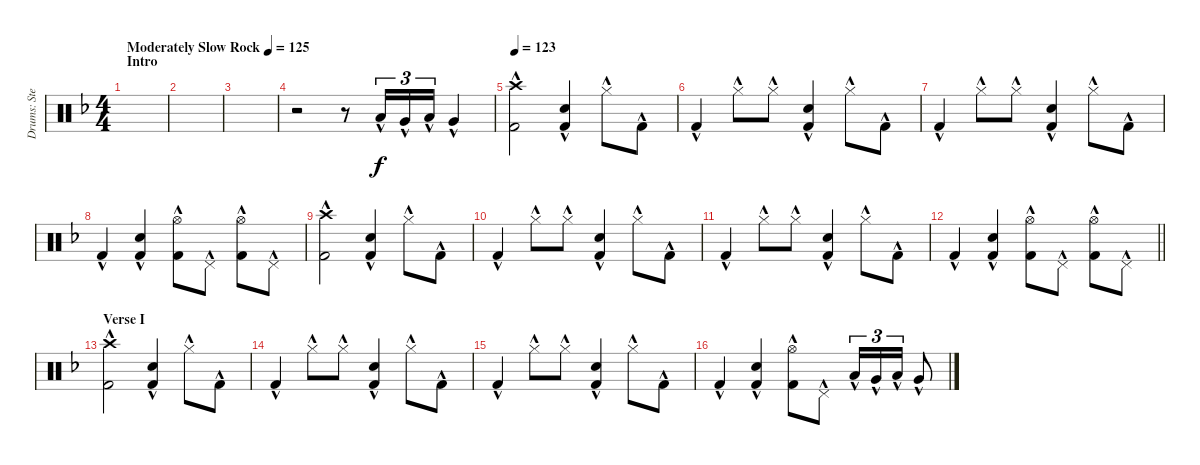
\track ("Drums: Steve" "Drums: Ste") {instrument percussion}
\staff {score}
\articulation defaults
\ts (4 4)
\section ("" "Intro")
\tempo (125 "Moderately Slow Rock")
\tempo 119
\tempo (125 "Moderately Slow Rock")
\clef neutral
\ks f
|
|
|
r.2 r.8 "Low Tom (hit)"{hac}.16{tu (3 2)} "Very Low Tom (hit)"{hac}.16{tu (3 2)} "Low Tom (hit)"{hac}.16{tu (3 2)} "Very Low Tom (hit)"{hac}.4 |
\tempo 123
("Crash high (hit)"{hac} "Kick (hit) 2"{hac}).2 ("Electric Snare (hit)"{hac} "Kick (hit) 2"{hac}).4 "Hi-Hat (closed)"{hac}.8 "Kick (hit) 2"{hac}.8 |
"Kick (hit) 2"{hac}.4 "Hi-Hat (closed)"{hac}.8 "Hi-Hat (closed)"{hac}.8 ("Electric Snare (hit)"{hac} "Kick (hit) 2"{hac}).4 "Hi-Hat (closed)"{hac}.8 "Kick (hit) 2"{hac}.8 |
"Kick (hit) 2"{hac}.4 "Hi-Hat (closed)"{hac}.8 "Hi-Hat (closed)"{hac}.8 ("Electric Snare (hit)"{hac} "Kick (hit) 2"{hac}).4 "Hi-Hat (closed)"{hac}.8 "Kick (hit) 2"{hac}.8 |
"Kick (hit) 2"{hac}.4 ("Electric Snare (hit)"{hac} "Kick (hit) 2"{hac}).4 ("Hi-Hat (open)"{hac} "Kick (hit) 2"{hac}).8 "Pedal Hi-Hat (hit)"{hac}.8 ("Hi-Hat (open)"{hac} "Kick (hit) 2"{hac}).8 "Pedal Hi-Hat (hit)"{hac}.8 |
("Crash high (hit)"{hac} "Kick (hit) 2"{hac}).2 ("Electric Snare (hit)"{hac} "Kick (hit) 2"{hac}).4 "Hi-Hat (closed)"{hac}.8 "Kick (hit) 2"{hac}.8 |
"Kick (hit) 2"{hac}.4 "Hi-Hat (closed)"{hac}.8 "Hi-Hat (closed)"{hac}.8 ("Electric Snare (hit)"{hac} "Kick (hit) 2"{hac}).4 "Hi-Hat (closed)"{hac}.8 "Kick (hit) 2"{hac}.8 |
"Kick (hit) 2"{hac}.4 "Hi-Hat (closed)"{hac}.8 "Hi-Hat (closed)"{hac}.8 ("Electric Snare (hit)"{hac} "Kick (hit) 2"{hac}).4 "Hi-Hat (closed)"{hac}.8 "Kick (hit) 2"{hac}.8 |
\barLineRight lightlight "Kick (hit) 2"{hac}.4
("Electric Snare (hit)"{hac} "Kick (hit) 2"{hac}).4 ("Hi-Hat (open)"{hac} "Kick (hit) 2"{hac}).8 "Pedal Hi-Hat (hit)"{hac}.8 ("Hi-Hat (open)"{hac} "Kick (hit) 2"{hac}).8 "Pedal Hi-Hat (hit)"{hac}.8 |
\section ("" "Verse I")
("Crash high (hit)"{hac} "Kick (hit) 2"{hac}).2 ("Electric Snare (hit)"{hac} "Kick (hit) 2"{hac}).4 "Hi-Hat (closed)"{hac}.8 "Kick (hit) 2"{hac}.8 |
"Kick (hit) 2"{hac}.4 "Hi-Hat (closed)"{hac}.8 "Hi-Hat (closed)"{hac}.8 ("Electric Snare (hit)"{hac} "Kick (hit) 2"{hac}).4 "Hi-Hat (closed)"{hac}.8 "Kick (hit) 2"{hac}.8 |
"Kick (hit) 2"{hac}.4 "Hi-Hat (closed)"{hac}.8 "Hi-Hat (closed)"{hac}.8 ("Electric Snare (hit)"{hac} "Kick (hit) 2"{hac}).4 "Hi-Hat (closed)"{hac}.8 "Kick (hit) 2"{hac}.8 |
"Kick (hit) 2"{hac}.4 ("Electric Snare (hit)"{hac} "Kick (hit) 2"{hac}).4 ("Hi-Hat (open)"{hac} "Kick (hit) 2"{hac}).8 "Pedal Hi-Hat (hit)"{hac}.8 "Low Tom (hit)"{hac}.16{tu (3 2)} "Very Low Tom (hit)"{hac}.16{tu (3 2)} "Low Tom (hit)"{hac}.16{tu (3 2)} "Very Low Tom (hit)"{hac}.8
